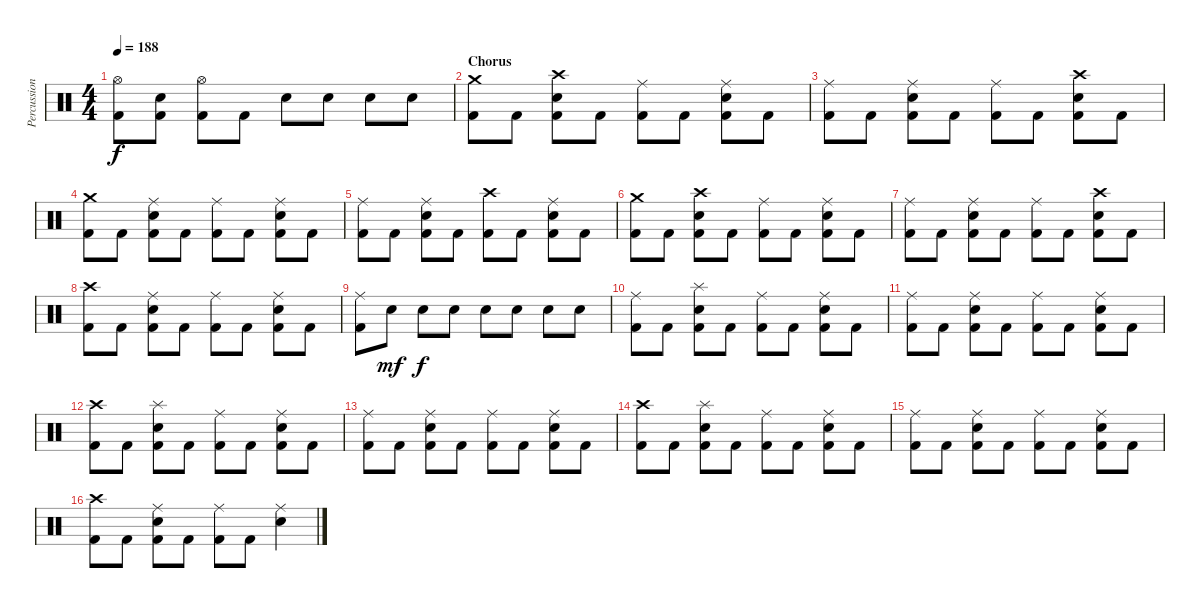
\track ("Percussions" "Percussion") {instrument percussion}
\staff {score}
\articulation defaults
\ts (4 4)
\tempo 188
\clef neutral
\ks c
("Hi-Hat (open)" "Kick (hit) 2").8{dy f} ("Snare (hit) 2" "Kick (hit) 2").8 ("Hi-Hat (open)" "Kick (hit) 2").8 "Kick (hit) 2".8 "Snare (hit) 2".8 "Snare (hit) 2".8 "Snare (hit) 2".8 "Snare (hit) 2".8 |
\section ("" "Chorus")
("Crash medium (hit)" "Kick (hit) 2").8 "Kick (hit) 2".8 ("Crash high (hit)" "Snare (hit) 2" "Kick (hit) 2").8 "Kick (hit) 2".8 ("Ride (middle)" "Kick (hit) 2").8 "Kick (hit) 2".8 ("Ride (middle)" "Snare (hit) 2" "Kick (hit) 2").8 "Kick (hit) 2".8 |
("Ride (middle)" "Kick (hit) 2").8 "Kick (hit) 2".8 ("Ride (middle)" "Snare (hit) 2" "Kick (hit) 2").8 "Kick (hit) 2".8 ("Ride (middle)" "Kick (hit) 2").8 "Kick (hit) 2".8 ("Crash high (hit)" "Snare (hit) 2" "Kick (hit) 2").8 "Kick (hit) 2".8 |
("Crash medium (hit)" "Kick (hit) 2").8 "Kick (hit) 2".8 ("Ride (middle)" "Snare (hit) 2" "Kick (hit) 2").8 "Kick (hit) 2".8 ("Ride (middle)" "Kick (hit) 2").8 "Kick (hit) 2".8 ("Ride (middle)" "Snare (hit) 2" "Kick (hit) 2").8 "Kick (hit) 2".8 |
("Ride (middle)" "Kick (hit) 2").8 "Kick (hit) 2".8 ("Ride (middle)" "Snare (hit) 2" "Kick (hit) 2").8 "Kick (hit) 2".8 ("Crash high (hit)" "Kick (hit) 2").8 "Kick (hit) 2".8 ("Ride (middle)" "Snare (hit) 2" "Kick (hit) 2").8 "Kick (hit) 2".8 |
("Crash medium (hit)" "Kick (hit) 2").8 "Kick (hit) 2".8 ("Crash high (hit)" "Snare (hit) 2" "Kick (hit) 2").8 "Kick (hit) 2".8 ("Ride (middle)" "Kick (hit) 2").8 "Kick (hit) 2".8 ("Ride (middle)" "Snare (hit) 2" "Kick (hit) 2").8 "Kick (hit) 2".8 |
("Ride (middle)" "Kick (hit) 2").8 "Kick (hit) 2".8 ("Ride (middle)" "Snare (hit) 2" "Kick (hit) 2").8 "Kick (hit) 2".8 ("Ride (middle)" "Kick (hit) 2").8 "Kick (hit) 2".8 ("Crash high (hit)" "Snare (hit) 2" "Kick (hit) 2").8 "Kick (hit) 2".8 |
("Crash high (hit)" "Kick (hit) 2").8 "Kick (hit) 2".8 ("Ride (middle)" "Snare (hit) 2" "Kick (hit) 2").8 "Kick (hit) 2".8 ("Ride (middle)" "Kick (hit) 2").8 "Kick (hit) 2".8 ("Ride (middle)" "Snare (hit) 2" "Kick (hit) 2").8 "Kick (hit) 2".8 |
("Ride (middle)" "Kick (hit) 2").8 "Snare (hit) 2".8{dy mf} "Snare (hit) 2".8{dy f} "Snare (hit) 2".8 "Snare (hit) 2".8 "Snare (hit) 2".8 "Snare (hit) 2".8 "Snare (hit) 2".8 |
("Ride (middle)" "Kick (hit) 2").8 "Kick (hit) 2".8 ("Splash (hit)" "Snare (hit) 2" "Kick (hit) 2").8 "Kick (hit) 2".8 ("Ride (middle)" "Kick (hit) 2").8 "Kick (hit) 2".8 ("Ride (middle)" "Snare (hit) 2" "Kick (hit) 2").8 "Kick (hit) 2".8 |
("Ride (middle)" "Kick (hit) 2").8 "Kick (hit) 2".8 ("Ride (middle)" "Snare (hit) 2" "Kick (hit) 2").8 "Kick (hit) 2".8 ("Ride (middle)" "Kick (hit) 2").8 "Kick (hit) 2".8 ("Ride (middle)" "Snare (hit) 2" "Kick (hit) 2").8 "Kick (hit) 2".8 |
("Crash high (hit)" "Kick (hit) 2").8 "Kick (hit) 2".8 ("Splash (hit)" "Snare (hit) 2" "Kick (hit) 2").8 "Kick (hit) 2".8 ("Ride (middle)" "Kick (hit) 2").8 "Kick (hit) 2".8 ("Ride (middle)" "Snare (hit) 2" "Kick (hit) 2").8 "Kick (hit) 2".8 |
("Ride (middle)" "Kick (hit) 2").8 "Kick (hit) 2".8 ("Ride (middle)" "Snare (hit) 2" "Kick (hit) 2").8 "Kick (hit) 2".8 ("Ride (middle)" "Kick (hit) 2").8 "Kick (hit) 2".8 ("Ride (middle)" "Snare (hit) 2" "Kick (hit) 2").8 "Kick (hit) 2".8 |
("Crash high (hit)" "Kick (hit) 2").8 "Kick (hit) 2".8 ("Splash (hit)" "Snare (hit) 2" "Kick (hit) 2").8 "Kick (hit) 2".8 ("Ride (middle)" "Kick (hit) 2").8 "Kick (hit) 2".8 ("Ride (middle)" "Snare (hit) 2" "Kick (hit) 2").8 "Kick (hit) 2".8 |
("Ride (middle)" "Kick (hit) 2").8 "Kick (hit) 2".8 ("Ride (middle)" "Snare (hit) 2" "Kick (hit) 2").8 "Kick (hit) 2".8 ("Ride (middle)" "Kick (hit) 2").8 "Kick (hit) 2".8 ("Ride (middle)" "Snare (hit) 2" "Kick (hit) 2").8 "Kick (hit) 2".8 |
("Crash high (hit)" "Kick (hit) 2").8 "Kick (hit) 2".8 ("Ride (middle)" "Snare (hit) 2" "Kick (hit) 2").8 "Kick (hit) 2".8 ("Ride (middle)" "Kick (hit) 2").8 "Kick (hit) 2".8 ("Ride (middle)" "Snare (hit) 2").4
